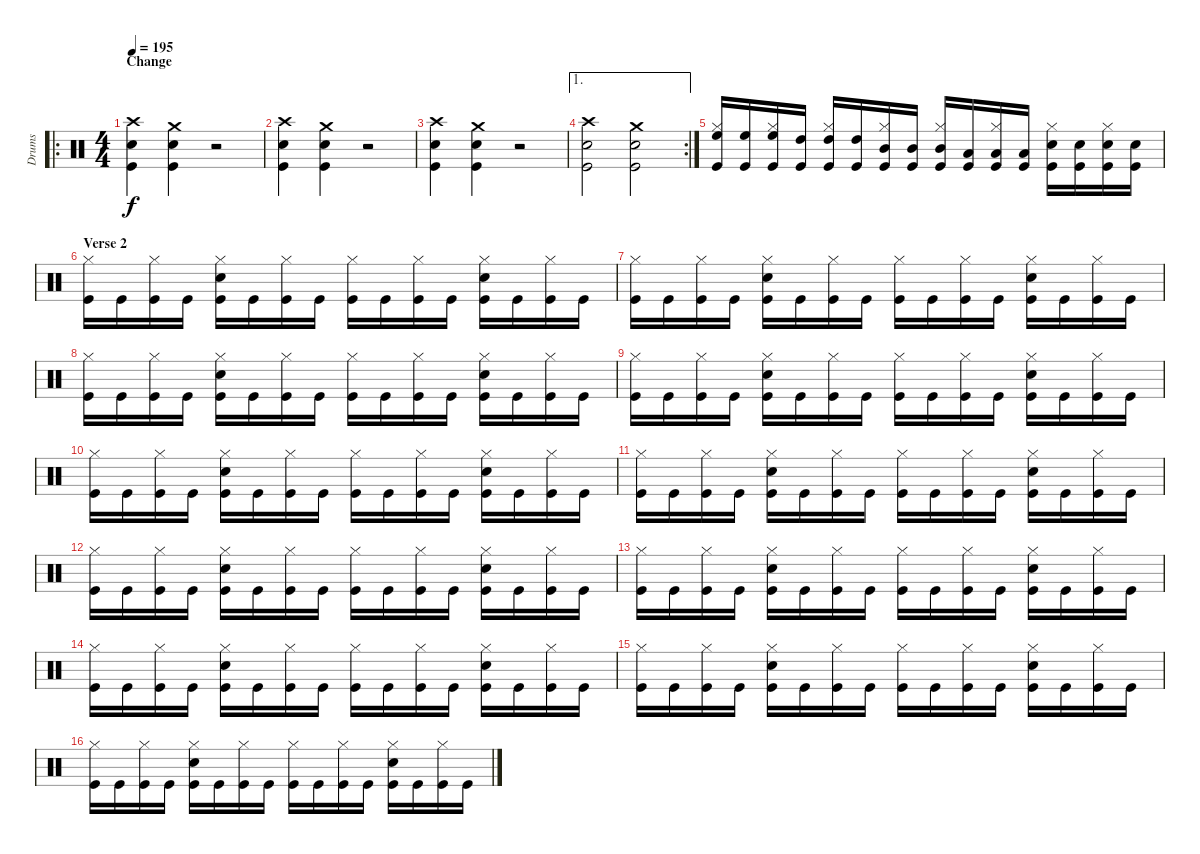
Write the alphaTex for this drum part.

\track ("Drums" "Drums") {instrument percussion}
\staff {score}
\articulation defaults
\ro
\ts (4 4)
\section ("" "Change")
\tempo 195
\clef neutral
\ks c
("Crash high (hit)" "Snare (hit) 2" "Kick (hit)").4{dy f} ("Crash medium (hit)" "Snare (hit) 2" "Kick (hit)").4 r.2 |
("Crash high (hit)" "Snare (hit) 2" "Kick (hit)").4 ("Crash medium (hit)" "Snare (hit) 2" "Kick (hit)").4 r.2 |
("Crash high (hit)" "Snare (hit) 2" "Kick (hit)").4 ("Crash medium (hit)" "Snare (hit) 2" "Kick (hit)").4 r.2 |
\ae 1
\rc 2
("Crash high (hit)" "Snare (hit) 2" "Kick (hit)").2 ("Crash medium (hit)" "Snare (hit) 2" "Kick (hit)").2 |
("Hi-Hat (closed)" "High Floor Tom (hit)" "Kick (hit)").16 ("High Floor Tom (hit)" "Kick (hit)").16 ("Hi-Hat (closed)" "High Floor Tom (hit)" "Kick (hit)").16 ("High Tom (hit)" "Kick (hit)").16 ("Hi-Hat (closed)" "High Tom (hit)" "Kick (hit)").16 ("High Tom (hit)" "Kick (hit)").16 ("Hi-Hat (closed)" "Mid Tom (hit)" "Kick (hit)").16 ("Mid Tom (hit)" "Kick (hit)").16 ("Hi-Hat (closed)" "Mid Tom (hit)" "Kick (hit)").16 ("Low Tom (hit)" "Kick (hit)").16 ("Hi-Hat (closed)" "Low Tom (hit)" "Kick (hit)").16 ("Low Tom (hit)" "Kick (hit)").16 ("Hi-Hat (closed)" "Snare (hit) 2" "Kick (hit)").16 ("Snare (hit) 2" "Kick (hit)").16 ("Hi-Hat (closed)" "Snare (hit) 2" "Kick (hit)").16 ("Snare (hit) 2" "Kick (hit)").16 |
\section ("" "Verse 2")
("Hi-Hat (closed)" "Kick (hit)").16 "Kick (hit)".16 ("Hi-Hat (closed)" "Kick (hit)").16 "Kick (hit)".16 ("Hi-Hat (closed)" "Snare (hit) 2" "Kick (hit)").16 "Kick (hit)".16 ("Hi-Hat (closed)" "Kick (hit)").16 "Kick (hit)".16 ("Hi-Hat (closed)" "Kick (hit)").16 "Kick (hit)".16 ("Hi-Hat (closed)" "Kick (hit)").16 "Kick (hit)".16 ("Hi-Hat (closed)" "Snare (hit) 2" "Kick (hit)").16 "Kick (hit)".16 ("Hi-Hat (closed)" "Kick (hit)").16 "Kick (hit)".16 |
("Hi-Hat (closed)" "Kick (hit)").16 "Kick (hit)".16 ("Hi-Hat (closed)" "Kick (hit)").16 "Kick (hit)".16 ("Hi-Hat (closed)" "Snare (hit) 2" "Kick (hit)").16 "Kick (hit)".16 ("Hi-Hat (closed)" "Kick (hit)").16 "Kick (hit)".16 ("Hi-Hat (closed)" "Kick (hit)").16 "Kick (hit)".16 ("Hi-Hat (closed)" "Kick (hit)").16 "Kick (hit)".16 ("Hi-Hat (closed)" "Snare (hit) 2" "Kick (hit)").16 "Kick (hit)".16 ("Hi-Hat (closed)" "Kick (hit)").16 "Kick (hit)".16 |
("Hi-Hat (closed)" "Kick (hit)").16 "Kick (hit)".16 ("Hi-Hat (closed)" "Kick (hit)").16 "Kick (hit)".16 ("Hi-Hat (closed)" "Snare (hit) 2" "Kick (hit)").16 "Kick (hit)".16 ("Hi-Hat (closed)" "Kick (hit)").16 "Kick (hit)".16 ("Hi-Hat (closed)" "Kick (hit)").16 "Kick (hit)".16 ("Hi-Hat (closed)" "Kick (hit)").16 "Kick (hit)".16 ("Hi-Hat (closed)" "Snare (hit) 2" "Kick (hit)").16 "Kick (hit)".16 ("Hi-Hat (closed)" "Kick (hit)").16 "Kick (hit)".16 |
("Hi-Hat (closed)" "Kick (hit)").16 "Kick (hit)".16 ("Hi-Hat (closed)" "Kick (hit)").16 "Kick (hit)".16 ("Hi-Hat (closed)" "Snare (hit) 2" "Kick (hit)").16 "Kick (hit)".16 ("Hi-Hat (closed)" "Kick (hit)").16 "Kick (hit)".16 ("Hi-Hat (closed)" "Kick (hit)").16 "Kick (hit)".16 ("Hi-Hat (closed)" "Kick (hit)").16 "Kick (hit)".16 ("Hi-Hat (closed)" "Snare (hit) 2" "Kick (hit)").16 "Kick (hit)".16 ("Hi-Hat (closed)" "Kick (hit)").16 "Kick (hit)".16 |
("Hi-Hat (closed)" "Kick (hit)").16 "Kick (hit)".16 ("Hi-Hat (closed)" "Kick (hit)").16 "Kick (hit)".16 ("Hi-Hat (closed)" "Snare (hit) 2" "Kick (hit)").16 "Kick (hit)".16 ("Hi-Hat (closed)" "Kick (hit)").16 "Kick (hit)".16 ("Hi-Hat (closed)" "Kick (hit)").16 "Kick (hit)".16 ("Hi-Hat (closed)" "Kick (hit)").16 "Kick (hit)".16 ("Hi-Hat (closed)" "Snare (hit) 2" "Kick (hit)").16 "Kick (hit)".16 ("Hi-Hat (closed)" "Kick (hit)").16 "Kick (hit)".16 |
("Hi-Hat (closed)" "Kick (hit)").16 "Kick (hit)".16 ("Hi-Hat (closed)" "Kick (hit)").16 "Kick (hit)".16 ("Hi-Hat (closed)" "Snare (hit) 2" "Kick (hit)").16 "Kick (hit)".16 ("Hi-Hat (closed)" "Kick (hit)").16 "Kick (hit)".16 ("Hi-Hat (closed)" "Kick (hit)").16 "Kick (hit)".16 ("Hi-Hat (closed)" "Kick (hit)").16 "Kick (hit)".16 ("Hi-Hat (closed)" "Snare (hit) 2" "Kick (hit)").16 "Kick (hit)".16 ("Hi-Hat (closed)" "Kick (hit)").16 "Kick (hit)".16 |
("Hi-Hat (closed)" "Kick (hit)").16 "Kick (hit)".16 ("Hi-Hat (closed)" "Kick (hit)").16 "Kick (hit)".16 ("Hi-Hat (closed)" "Snare (hit) 2" "Kick (hit)").16 "Kick (hit)".16 ("Hi-Hat (closed)" "Kick (hit)").16 "Kick (hit)".16 ("Hi-Hat (closed)" "Kick (hit)").16 "Kick (hit)".16 ("Hi-Hat (closed)" "Kick (hit)").16 "Kick (hit)".16 ("Hi-Hat (closed)" "Snare (hit) 2" "Kick (hit)").16 "Kick (hit)".16 ("Hi-Hat (closed)" "Kick (hit)").16 "Kick (hit)".16 |
("Hi-Hat (closed)" "Kick (hit)").16 "Kick (hit)".16 ("Hi-Hat (closed)" "Kick (hit)").16 "Kick (hit)".16 ("Hi-Hat (closed)" "Snare (hit) 2" "Kick (hit)").16 "Kick (hit)".16 ("Hi-Hat (closed)" "Kick (hit)").16 "Kick (hit)".16 ("Hi-Hat (closed)" "Kick (hit)").16 "Kick (hit)".16 ("Hi-Hat (closed)" "Kick (hit)").16 "Kick (hit)".16 ("Hi-Hat (closed)" "Snare (hit) 2" "Kick (hit)").16 "Kick (hit)".16 ("Hi-Hat (closed)" "Kick (hit)").16 "Kick (hit)".16 |
("Hi-Hat (closed)" "Kick (hit)").16 "Kick (hit)".16 ("Hi-Hat (closed)" "Kick (hit)").16 "Kick (hit)".16 ("Hi-Hat (closed)" "Snare (hit) 2" "Kick (hit)").16 "Kick (hit)".16 ("Hi-Hat (closed)" "Kick (hit)").16 "Kick (hit)".16 ("Hi-Hat (closed)" "Kick (hit)").16 "Kick (hit)".16 ("Hi-Hat (closed)" "Kick (hit)").16 "Kick (hit)".16 ("Hi-Hat (closed)" "Snare (hit) 2" "Kick (hit)").16 "Kick (hit)".16 ("Hi-Hat (closed)" "Kick (hit)").16 "Kick (hit)".16 |
("Hi-Hat (closed)" "Kick (hit)").16 "Kick (hit)".16 ("Hi-Hat (closed)" "Kick (hit)").16 "Kick (hit)".16 ("Hi-Hat (closed)" "Snare (hit) 2" "Kick (hit)").16 "Kick (hit)".16 ("Hi-Hat (closed)" "Kick (hit)").16 "Kick (hit)".16 ("Hi-Hat (closed)" "Kick (hit)").16 "Kick (hit)".16 ("Hi-Hat (closed)" "Kick (hit)").16 "Kick (hit)".16 ("Hi-Hat (closed)" "Snare (hit) 2" "Kick (hit)").16 "Kick (hit)".16 ("Hi-Hat (closed)" "Kick (hit)").16 "Kick (hit)".16 |
("Hi-Hat (closed)" "Kick (hit)").16 "Kick (hit)".16 ("Hi-Hat (closed)" "Kick (hit)").16 "Kick (hit)".16 ("Hi-Hat (closed)" "Snare (hit) 2" "Kick (hit)").16 "Kick (hit)".16 ("Hi-Hat (closed)" "Kick (hit)").16 "Kick (hit)".16 ("Hi-Hat (closed)" "Kick (hit)").16 "Kick (hit)".16 ("Hi-Hat (closed)" "Kick (hit)").16 "Kick (hit)".16 ("Hi-Hat (closed)" "Snare (hit) 2" "Kick (hit)").16 "Kick (hit)".16 ("Hi-Hat (closed)" "Kick (hit)").16 "Kick (hit)".16
